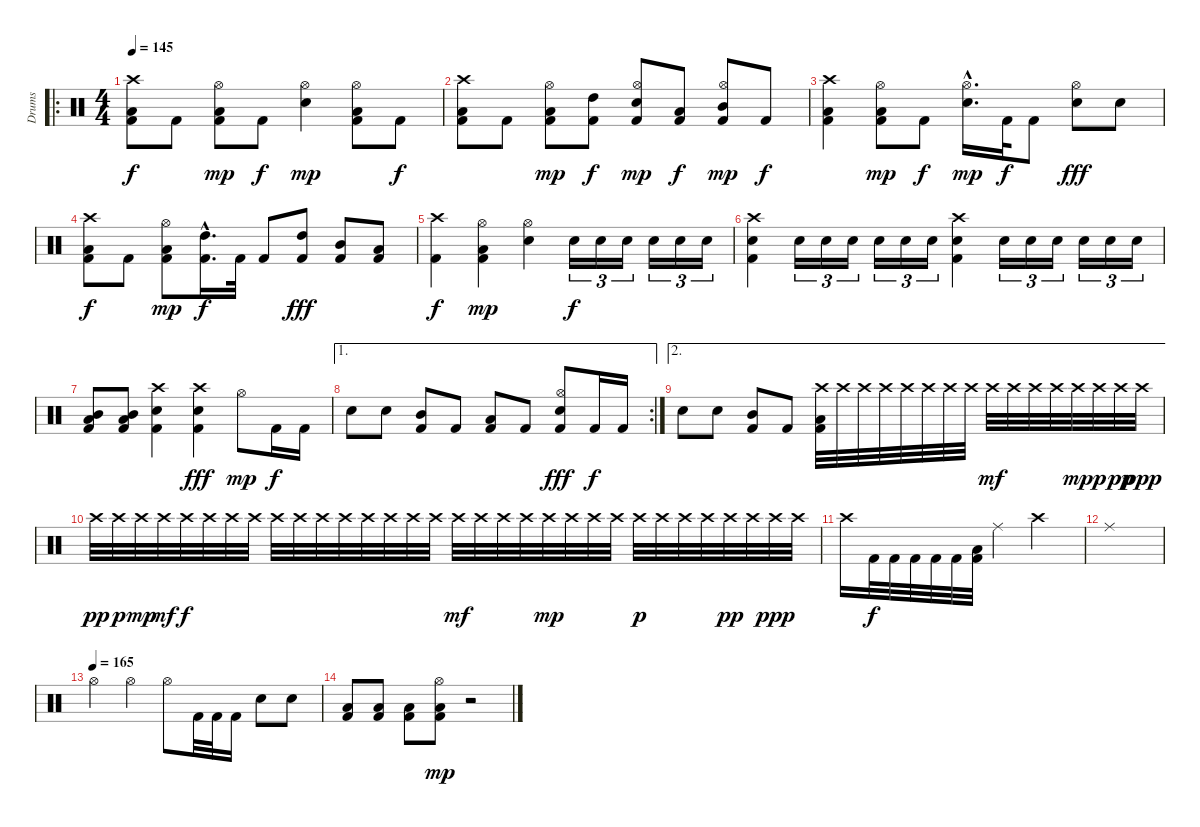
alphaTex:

\track ("Drums" "Drums") {instrument percussion}
\staff {score}
\articulation defaults
\ro
\ts (4 4)
\tempo 145
\clef neutral
\ks c
("Crash high (hit)" "Low Tom (hit)" "Kick (hit) 2").8{dy f} "Kick (hit) 2".8 ("Hi-Hat (open)" "Low Tom (hit)" "Kick (hit) 2").8{dy mp} "Kick (hit) 2".8{dy f} ("Hi-Hat (open)" "Electric Snare (hit)").4{dy mp} ("Hi-Hat (open)" "Low Tom (hit)" "Kick (hit) 2").8 "Kick (hit) 2".8{dy f} |
("Crash high (hit)" "Low Tom (hit)" "Kick (hit) 2").8 "Kick (hit) 2".8 ("Hi-Hat (open)" "Low Tom (hit)" "Kick (hit) 2").8{dy mp} ("High Tom (hit)" "Kick (hit) 2").8{dy f} ("Hi-Hat (open)" "Electric Snare (hit)" "Kick (hit) 2").8{dy mp} ("Low Tom (hit)" "Kick (hit) 2").8{dy f} ("Hi-Hat (open)" "Mid Tom (hit)" "Kick (hit) 2").8{dy mp} "Kick (hit) 2".8{dy f} |
("Crash high (hit)" "Low Tom (hit)" "Kick (hit) 2").4 ("Hi-Hat (open)" "Low Tom (hit)" "Kick (hit) 2").8{dy mp} "Kick (hit) 2".8{dy f} ("Hi-Hat (open)"{hac} "Electric Snare (hit)"{hac}).16{d dy mp} "Kick (hit) 2".32{dy f} "Kick (hit) 2".8 ("Hi-Hat (open)" "Electric Snare (hit)").8{dy fff} "Electric Snare (hit)".8 |
("Crash high (hit)" "Low Tom (hit)" "Kick (hit) 2").8{dy f} "Kick (hit) 2".8 ("Hi-Hat (open)" "Low Tom (hit)" "Kick (hit) 2").8{dy mp} ("High Tom (hit)"{hac} "Kick (hit) 2"{hac}).16{d dy f} "Kick (hit) 2".32 "Kick (hit) 2".8 ("High Tom (hit)" "Kick (hit) 2").8{dy fff} ("Mid Tom (hit)" "Kick (hit) 2").8 ("Low Tom (hit)" "Kick (hit) 2").8 |
("Crash high (hit)" "Kick (hit) 2").4{dy f} ("Hi-Hat (open)" "Low Tom (hit)" "Kick (hit) 2").4{dy mp} ("Hi-Hat (open)" "Electric Snare (hit)").4 "Electric Snare (hit)".16{tu (3 2) dy f} "Electric Snare (hit)".16{tu (3 2)} "Electric Snare (hit)".16{tu (3 2)} "Electric Snare (hit)".16{tu (3 2)} "Electric Snare (hit)".16{tu (3 2)} "Electric Snare (hit)".16{tu (3 2)} |
("Crash high (hit)" "Electric Snare (hit)" "Kick (hit) 2").4 "Electric Snare (hit)".16{tu (3 2)} "Electric Snare (hit)".16{tu (3 2)} "Electric Snare (hit)".16{tu (3 2)} "Electric Snare (hit)".16{tu (3 2)} "Electric Snare (hit)".16{tu (3 2)} "Electric Snare (hit)".16{tu (3 2)} ("Crash high (hit)" "Electric Snare (hit)" "Kick (hit) 2").4 "Electric Snare (hit)".16{tu (3 2)} "Electric Snare (hit)".16{tu (3 2)} "Electric Snare (hit)".16{tu (3 2)} "Electric Snare (hit)".16{tu (3 2)} "Electric Snare (hit)".16{tu (3 2)} "Electric Snare (hit)".16{tu (3 2)} |
("Mid Tom (hit)" "Low Tom (hit)" "Kick (hit) 2").8 ("Mid Tom (hit)" "Low Tom (hit)" "Kick (hit) 2").8 ("Crash high (hit)" "Electric Snare (hit)" "Kick (hit) 2").4 ("Crash high (hit)" "Electric Snare (hit)" "Kick (hit) 2").4{dy fff} "Hi-Hat (open)".8{dy mp} "Kick (hit) 2".16{dy f} "Kick (hit) 2".16 |
\ae 1
\rc 2 "Electric Snare (hit)".8 "Electric Snare (hit)".8
("Mid Tom (hit)" "Kick (hit) 2").8 "Kick (hit) 2".8 ("Low Tom (hit)" "Kick (hit) 2").8 "Kick (hit) 2".8 ("Hi-Hat (open)" "Electric Snare (hit)" "Kick (hit) 2").8{dy fff} "Kick (hit) 2".16{dy f} "Kick (hit) 2".16 |
\ae 2 "Electric Snare (hit)".8 "Electric Snare (hit)".8
("Mid Tom (hit)" "Kick (hit) 2").8 "Kick (hit) 2".8 ("Crash high (hit)" "Low Tom (hit)" "Kick (hit) 2").32 "Crash high (hit)".32 "Crash high (hit)".32 "Crash high (hit)".32 "Crash high (hit)".32 "Crash high (hit)".32 "Crash high (hit)".32 "Crash high (hit)".32 "Crash high (hit)".32{dy mf} "Crash high (hit)".32 "Crash high (hit)".32 "Crash high (hit)".32 "Crash high (hit)".32{dy mp} "Crash high (hit)".32{dy p} "Crash high (hit)".32{dy pp} "Crash high (hit)".32{dy ppp} |
"Crash high (hit)".32{dy pp} "Crash high (hit)".32{dy p} "Crash high (hit)".32{dy mp} "Crash high (hit)".32{dy mf} "Crash high (hit)".32{dy f} "Crash high (hit)".32 "Crash high (hit)".32 "Crash high (hit)".32 "Crash high (hit)".32 "Crash high (hit)".32 "Crash high (hit)".32 "Crash high (hit)".32 "Crash high (hit)".32 "Crash high (hit)".32 "Crash high (hit)".32 "Crash high (hit)".32 "Crash high (hit)".32{dy mf} "Crash high (hit)".32 "Crash high (hit)".32 "Crash high (hit)".32 "Crash high (hit)".32{dy mp} "Crash high (hit)".32 "Crash high (hit)".32 "Crash high (hit)".32 "Crash high (hit)".32{dy p} "Crash high (hit)".32 "Crash high (hit)".32 "Crash high (hit)".32 "Crash high (hit)".32{dy pp} "Crash high (hit)".32 "Crash high (hit)".32{dy ppp} "Crash high (hit)".32 |
"Crash high (hit)".16 "Kick (hit) 2".32{dy f} "Kick (hit) 2".32 "Kick (hit) 2".32 "Kick (hit) 2".32 "Kick (hit) 2".32 ("Low Tom (hit)" "Kick (hit) 2").32 "Ride (middle)".4 "Crash high (hit)".2 |
"Ride (middle)".1 |
\tempo (165)
"Hi-Hat (open)".4 "Hi-Hat (open)".4 "Hi-Hat (open)".8 "Kick (hit) 2".32 "Kick (hit) 2".32 "Kick (hit) 2".16 "Electric Snare (hit)".8 "Electric Snare (hit)".8 |
("Low Tom (hit)" "Kick (hit) 2").8 ("Low Tom (hit)" "Kick (hit) 2").8 ("Low Tom (hit)" "Kick (hit) 2").8 ("Hi-Hat (open)" "Low Tom (hit)" "Kick (hit) 2").8{dy mp} r.2
